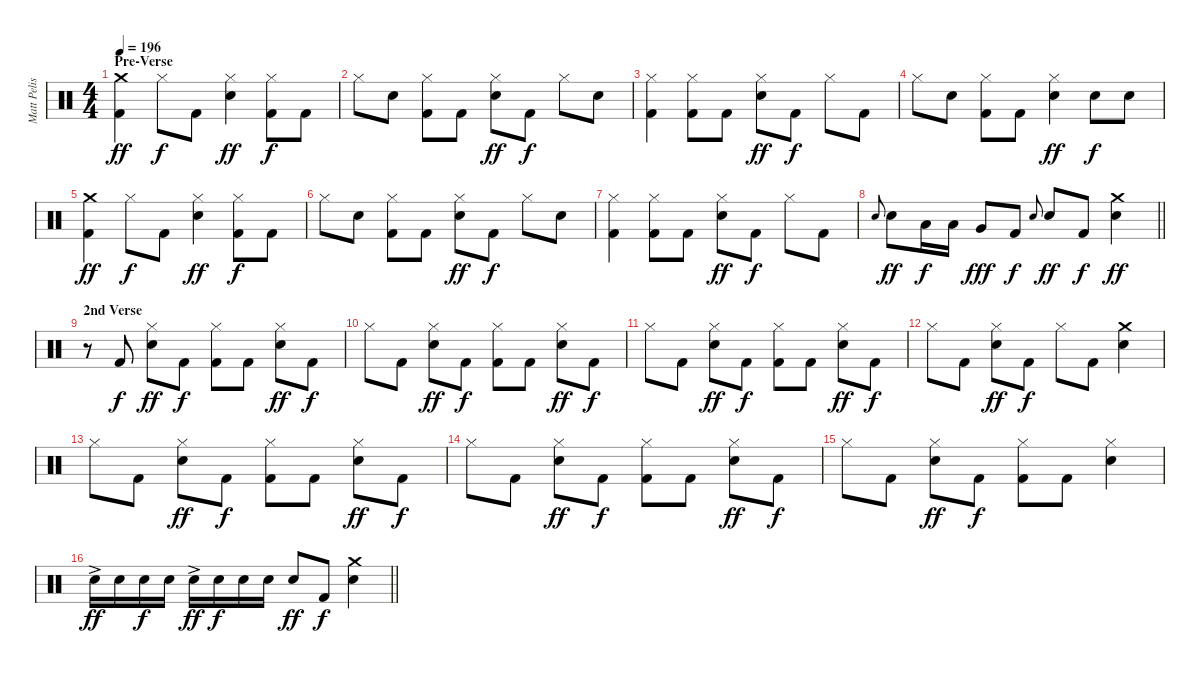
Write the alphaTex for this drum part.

\track ("Matt Pelissier" "Matt Pelis") {instrument percussion}
\staff {score}
\articulation defaults
\ts (4 4)
\section ("" "Pre-Verse")
\tempo 196
\clef neutral
\ks c
("Crash medium (hit)" "Kick (hit) 2").4{dy ff} "Hi-Hat (closed)".8{dy f} "Kick (hit) 2".8 ("Hi-Hat (closed)" "Snare (hit) 2").4{dy ff} ("Hi-Hat (closed)" "Kick (hit) 2").8{dy f} "Kick (hit) 2".8 |
"Hi-Hat (closed)".8 "Snare (hit) 2".8 ("Hi-Hat (closed)" "Kick (hit) 2").8 "Kick (hit) 2".8 ("Hi-Hat (closed)" "Snare (hit) 2").8{dy ff} "Kick (hit) 2".8{dy f} "Hi-Hat (closed)".8 "Snare (hit) 2".8 |
("Hi-Hat (closed)" "Kick (hit) 2").4 ("Hi-Hat (closed)" "Kick (hit) 2").8 "Kick (hit) 2".8 ("Hi-Hat (closed)" "Snare (hit) 2").8{dy ff} "Kick (hit) 2".8{dy f} "Hi-Hat (closed)".8 "Kick (hit) 2".8 |
"Hi-Hat (closed)".8 "Snare (hit) 2".8 ("Hi-Hat (closed)" "Kick (hit) 2").8 "Kick (hit) 2".8 ("Hi-Hat (closed)" "Snare (hit) 2").4{dy ff} "Snare (hit) 2".8{dy f} "Snare (hit) 2".8 |
("Crash medium (hit)" "Kick (hit) 2").4{dy ff} "Hi-Hat (closed)".8{dy f} "Kick (hit) 2".8 ("Hi-Hat (closed)" "Snare (hit) 2").4{dy ff} ("Hi-Hat (closed)" "Kick (hit) 2").8{dy f} "Kick (hit) 2".8 |
"Hi-Hat (closed)".8 "Snare (hit) 2".8 ("Hi-Hat (closed)" "Kick (hit) 2").8 "Kick (hit) 2".8 ("Hi-Hat (closed)" "Snare (hit) 2").8{dy ff} "Kick (hit) 2".8{dy f} "Hi-Hat (closed)".8 "Snare (hit) 2".8 |
("Hi-Hat (closed)" "Kick (hit) 2").4 ("Hi-Hat (closed)" "Kick (hit) 2").8 "Kick (hit) 2".8 ("Hi-Hat (closed)" "Snare (hit) 2").8{dy ff} "Kick (hit) 2".8{dy f} "Hi-Hat (closed)".8 "Kick (hit) 2".8 |
\barLineRight lightlight "Snare (hit) 2".8{gr onbeat} "Snare (hit) 2".8{dy ff} "Low Tom (hit)".16{dy f} "Low Tom (hit)".16 "Very Low Tom (hit)".8{dy fff} "Kick (hit) 2".8{dy f} "Snare (hit) 2".8{gr onbeat} "Snare (hit) 2".8{dy ff} "Kick (hit) 2".8{dy f}
("Crash medium (hit)" "Snare (hit) 2").4{dy ff} |
\section ("" "2nd Verse")
r.8 "Kick (hit) 2".8{dy f} ("Hi-Hat (closed)" "Snare (hit) 2").8{dy ff} "Kick (hit) 2".8{dy f} ("Hi-Hat (closed)" "Kick (hit) 2").8 "Kick (hit) 2".8 ("Hi-Hat (closed)" "Snare (hit) 2").8{dy ff} "Kick (hit) 2".8{dy f} |
"Hi-Hat (closed)".8 "Kick (hit) 2".8 ("Hi-Hat (closed)" "Snare (hit) 2").8{dy ff} "Kick (hit) 2".8{dy f} ("Hi-Hat (closed)" "Kick (hit) 2").8 "Kick (hit) 2".8 ("Hi-Hat (closed)" "Snare (hit) 2").8{dy ff} "Kick (hit) 2".8{dy f} |
"Hi-Hat (closed)".8 "Kick (hit) 2".8 ("Hi-Hat (closed)" "Snare (hit) 2").8{dy ff} "Kick (hit) 2".8{dy f} ("Hi-Hat (closed)" "Kick (hit) 2").8 "Kick (hit) 2".8 ("Hi-Hat (closed)" "Snare (hit) 2").8{dy ff} "Kick (hit) 2".8{dy f} |
"Hi-Hat (closed)".8 "Kick (hit) 2".8 ("Hi-Hat (closed)" "Snare (hit) 2").8{dy ff} "Kick (hit) 2".8{dy f} "Hi-Hat (closed)".8 "Kick (hit) 2".8 ("Crash medium (hit)" "Snare (hit) 2").4 |
"Hi-Hat (closed)".8 "Kick (hit) 2".8 ("Hi-Hat (closed)" "Snare (hit) 2").8{dy ff} "Kick (hit) 2".8{dy f} ("Hi-Hat (closed)" "Kick (hit) 2").8 "Kick (hit) 2".8 ("Hi-Hat (closed)" "Snare (hit) 2").8{dy ff} "Kick (hit) 2".8{dy f} |
"Hi-Hat (closed)".8 "Kick (hit) 2".8 ("Hi-Hat (closed)" "Snare (hit) 2").8{dy ff} "Kick (hit) 2".8{dy f} ("Hi-Hat (closed)" "Kick (hit) 2").8 "Kick (hit) 2".8 ("Hi-Hat (closed)" "Snare (hit) 2").8{dy ff} "Kick (hit) 2".8{dy f} |
"Hi-Hat (closed)".8 "Kick (hit) 2".8 ("Hi-Hat (closed)" "Snare (hit) 2").8{dy ff} "Kick (hit) 2".8{dy f} ("Hi-Hat (closed)" "Kick (hit) 2").8 "Kick (hit) 2".8 ("Hi-Hat (closed)" "Snare (hit) 2").4 |
\barLineRight lightlight "Snare (hit) 2"{ac}.16{dy ff} "Snare (hit) 2".16 "Snare (hit) 2".16{dy f} "Snare (hit) 2".16 "Snare (hit) 2"{ac}.16{dy ff} "Snare (hit) 2".16{dy f} "Snare (hit) 2".16 "Snare (hit) 2".16 "Snare (hit) 2".8{dy ff} "Kick (hit) 2".8{dy f}
("Crash medium (hit)" "Snare (hit) 2").4
